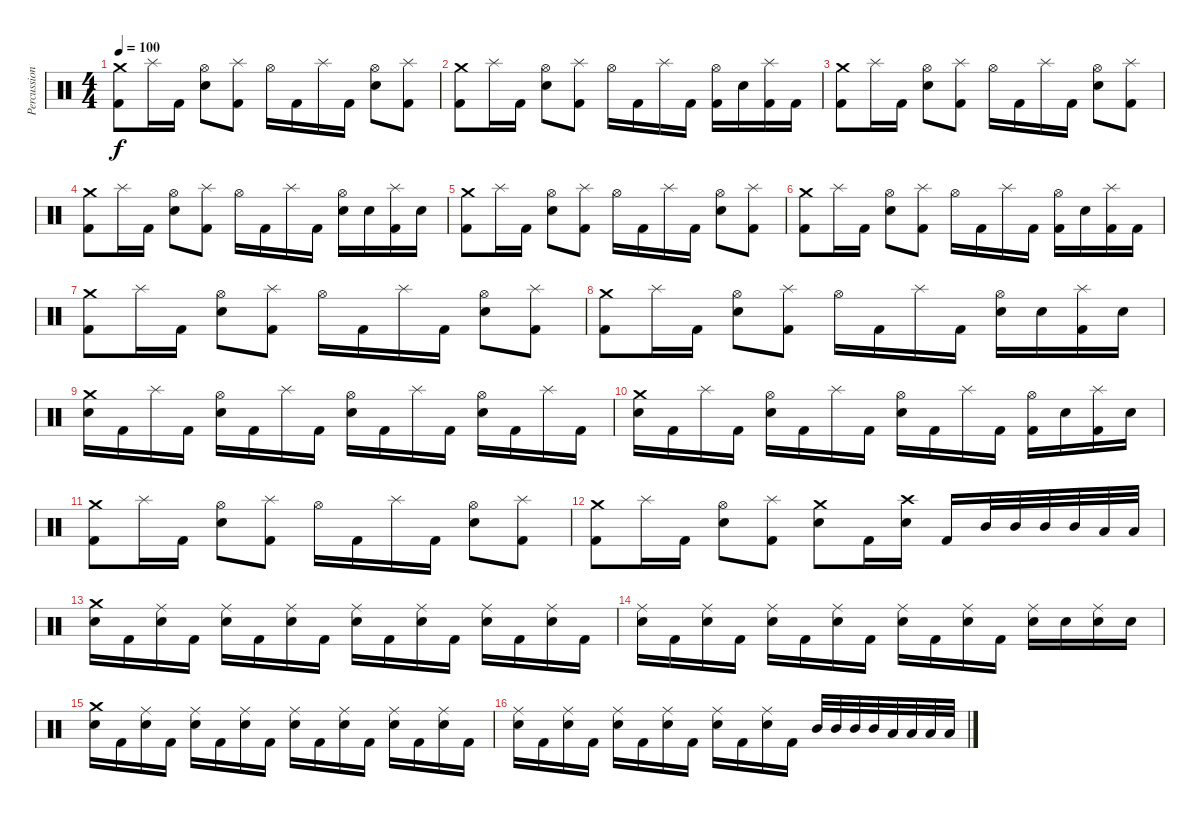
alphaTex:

\track ("Percussion" "Percussion") {instrument percussion}
\staff {score}
\articulation defaults
\ts (4 4)
\tempo 100
\clef neutral
\ks c
("Crash medium (hit)" "Kick (hit) 2").8{dy f} "Splash (hit)".16 "Kick (hit) 2".16 ("Hi-Hat (open)" "Electric Snare (hit)").8 ("Splash (hit)" "Kick (hit) 2").8 "Hi-Hat (open)".16 "Kick (hit) 2".16 "Splash (hit)".16 "Kick (hit) 2".16 ("Hi-Hat (open)" "Electric Snare (hit)").8 ("Splash (hit)" "Kick (hit) 2").8 |
("Crash medium (hit)" "Kick (hit) 2").8 "Splash (hit)".16 "Kick (hit) 2".16 ("Hi-Hat (open)" "Electric Snare (hit)").8 ("Splash (hit)" "Kick (hit) 2").8 "Hi-Hat (open)".16 "Kick (hit) 2".16 "Splash (hit)".16 "Kick (hit) 2".16 ("Hi-Hat (open)" "Kick (hit) 2").16 "Electric Snare (hit)".16 ("Splash (hit)" "Kick (hit) 2").16 "Kick (hit) 2".16 |
("Crash medium (hit)" "Kick (hit) 2").8 "Splash (hit)".16 "Kick (hit) 2".16 ("Hi-Hat (open)" "Electric Snare (hit)").8 ("Splash (hit)" "Kick (hit) 2").8 "Hi-Hat (open)".16 "Kick (hit) 2".16 "Splash (hit)".16 "Kick (hit) 2".16 ("Hi-Hat (open)" "Electric Snare (hit)").8 ("Splash (hit)" "Kick (hit) 2").8 |
("Crash medium (hit)" "Kick (hit) 2").8 "Splash (hit)".16 "Kick (hit) 2".16 ("Hi-Hat (open)" "Electric Snare (hit)").8 ("Splash (hit)" "Kick (hit) 2").8 "Hi-Hat (open)".16 "Kick (hit) 2".16 "Splash (hit)".16 "Kick (hit) 2".16 ("Hi-Hat (open)" "Electric Snare (hit)").16 "Electric Snare (hit)".16 ("Splash (hit)" "Kick (hit) 2").16 "Electric Snare (hit)".16 |
("Crash medium (hit)" "Kick (hit) 2").8 "Splash (hit)".16 "Kick (hit) 2".16 ("Hi-Hat (open)" "Electric Snare (hit)").8 ("Splash (hit)" "Kick (hit) 2").8 "Hi-Hat (open)".16 "Kick (hit) 2".16 "Splash (hit)".16 "Kick (hit) 2".16 ("Hi-Hat (open)" "Electric Snare (hit)").8 ("Splash (hit)" "Kick (hit) 2").8 |
("Crash medium (hit)" "Kick (hit) 2").8 "Splash (hit)".16 "Kick (hit) 2".16 ("Hi-Hat (open)" "Electric Snare (hit)").8 ("Splash (hit)" "Kick (hit) 2").8 "Hi-Hat (open)".16 "Kick (hit) 2".16 "Splash (hit)".16 "Kick (hit) 2".16 ("Hi-Hat (open)" "Kick (hit) 2").16 "Electric Snare (hit)".16 ("Splash (hit)" "Kick (hit) 2").16 "Kick (hit) 2".16 |
("Crash medium (hit)" "Kick (hit) 2").8 "Splash (hit)".16 "Kick (hit) 2".16 ("Hi-Hat (open)" "Electric Snare (hit)").8 ("Splash (hit)" "Kick (hit) 2").8 "Hi-Hat (open)".16 "Kick (hit) 2".16 "Splash (hit)".16 "Kick (hit) 2".16 ("Hi-Hat (open)" "Electric Snare (hit)").8 ("Splash (hit)" "Kick (hit) 2").8 |
("Crash medium (hit)" "Kick (hit) 2").8 "Splash (hit)".16 "Kick (hit) 2".16 ("Hi-Hat (open)" "Electric Snare (hit)").8 ("Splash (hit)" "Kick (hit) 2").8 "Hi-Hat (open)".16 "Kick (hit) 2".16 "Splash (hit)".16 "Kick (hit) 2".16 ("Hi-Hat (open)" "Electric Snare (hit)").16 "Electric Snare (hit)".16 ("Splash (hit)" "Kick (hit) 2").16 "Electric Snare (hit)".16 |
("Crash medium (hit)" "Electric Snare (hit)").16 "Kick (hit) 2".16 "Splash (hit)".16 "Kick (hit) 2".16 ("Hi-Hat (open)" "Electric Snare (hit)").16 "Kick (hit) 2".16 "Splash (hit)".16 "Kick (hit) 2".16 ("Hi-Hat (open)" "Electric Snare (hit)").16 "Kick (hit) 2".16 "Splash (hit)".16 "Kick (hit) 2".16 ("Hi-Hat (open)" "Electric Snare (hit)").16 "Kick (hit) 2".16 "Splash (hit)".16 "Kick (hit) 2".16 |
("Crash medium (hit)" "Electric Snare (hit)").16 "Kick (hit) 2".16 "Splash (hit)".16 "Kick (hit) 2".16 ("Hi-Hat (open)" "Electric Snare (hit)").16 "Kick (hit) 2".16 "Splash (hit)".16 "Kick (hit) 2".16 ("Hi-Hat (open)" "Electric Snare (hit)").16 "Kick (hit) 2".16 "Splash (hit)".16 "Kick (hit) 2".16 ("Hi-Hat (open)" "Kick (hit) 2").16 "Electric Snare (hit)".16 ("Splash (hit)" "Kick (hit) 2").16 "Electric Snare (hit)".16 |
("Crash medium (hit)" "Kick (hit) 2").8 "Splash (hit)".16 "Kick (hit) 2".16 ("Hi-Hat (open)" "Electric Snare (hit)").8 ("Splash (hit)" "Kick (hit) 2").8 "Hi-Hat (open)".16 "Kick (hit) 2".16 "Splash (hit)".16 "Kick (hit) 2".16 ("Hi-Hat (open)" "Electric Snare (hit)").8 ("Splash (hit)" "Kick (hit) 2").8 |
("Crash medium (hit)" "Kick (hit) 2").8 "Splash (hit)".16 "Kick (hit) 2".16 ("Hi-Hat (open)" "Electric Snare (hit)").8 ("Splash (hit)" "Kick (hit) 2").8 ("Crash medium (hit)" "Electric Snare (hit)").8 "Kick (hit) 2".16 ("Crash high (hit)" "Electric Snare (hit)").16 "Kick (hit) 2".16 "Mid Tom (hit)".32 "Mid Tom (hit)".32 "Mid Tom (hit)".32 "Mid Tom (hit)".32 "Low Tom (hit)".32 "Low Tom (hit)".32 |
("Crash medium (hit)" "Electric Snare (hit)").16 "Kick (hit) 2".16 ("Ride (middle)" "Electric Snare (hit)").16 "Kick (hit) 2".16 ("Ride (middle)" "Electric Snare (hit)").16 "Kick (hit) 2".16 ("Ride (middle)" "Electric Snare (hit)").16 "Kick (hit) 2".16 ("Ride (middle)" "Electric Snare (hit)").16 "Kick (hit) 2".16 ("Ride (middle)" "Electric Snare (hit)").16 "Kick (hit) 2".16 ("Ride (middle)" "Electric Snare (hit)").16 "Kick (hit) 2".16 ("Ride (middle)" "Electric Snare (hit)").16 "Kick (hit) 2".16 |
("Ride (middle)" "Electric Snare (hit)").16 "Kick (hit) 2".16 ("Ride (middle)" "Electric Snare (hit)").16 "Kick (hit) 2".16 ("Ride (middle)" "Electric Snare (hit)").16 "Kick (hit) 2".16 ("Ride (middle)" "Electric Snare (hit)").16 "Kick (hit) 2".16 ("Ride (middle)" "Electric Snare (hit)").16 "Kick (hit) 2".16 ("Ride (middle)" "Electric Snare (hit)").16 "Kick (hit) 2".16 ("Ride (middle)" "Electric Snare (hit)").16 "Electric Snare (hit)".16 ("Ride (middle)" "Electric Snare (hit)").16 "Electric Snare (hit)".16 |
("Crash medium (hit)" "Electric Snare (hit)").16 "Kick (hit) 2".16 ("Ride (middle)" "Electric Snare (hit)").16 "Kick (hit) 2".16 ("Ride (middle)" "Electric Snare (hit)").16 "Kick (hit) 2".16 ("Ride (middle)" "Electric Snare (hit)").16 "Kick (hit) 2".16 ("Ride (middle)" "Electric Snare (hit)").16 "Kick (hit) 2".16 ("Ride (middle)" "Electric Snare (hit)").16 "Kick (hit) 2".16 ("Ride (middle)" "Electric Snare (hit)").16 "Kick (hit) 2".16 ("Ride (middle)" "Electric Snare (hit)").16 "Kick (hit) 2".16 |
("Ride (middle)" "Electric Snare (hit)").16 "Kick (hit) 2".16 ("Ride (middle)" "Electric Snare (hit)").16 "Kick (hit) 2".16 ("Ride (middle)" "Electric Snare (hit)").16 "Kick (hit) 2".16 ("Ride (middle)" "Electric Snare (hit)").16 "Kick (hit) 2".16 ("Ride (middle)" "Electric Snare (hit)").16 "Kick (hit) 2".16 ("Ride (middle)" "Electric Snare (hit)").16 "Kick (hit) 2".16 "Mid Tom (hit)".32 "Mid Tom (hit)".32 "Mid Tom (hit)".32 "Mid Tom (hit)".32 "Low Tom (hit)".32 "Low Tom (hit)".32 "Low Tom (hit)".32 "Low Tom (hit)".32
